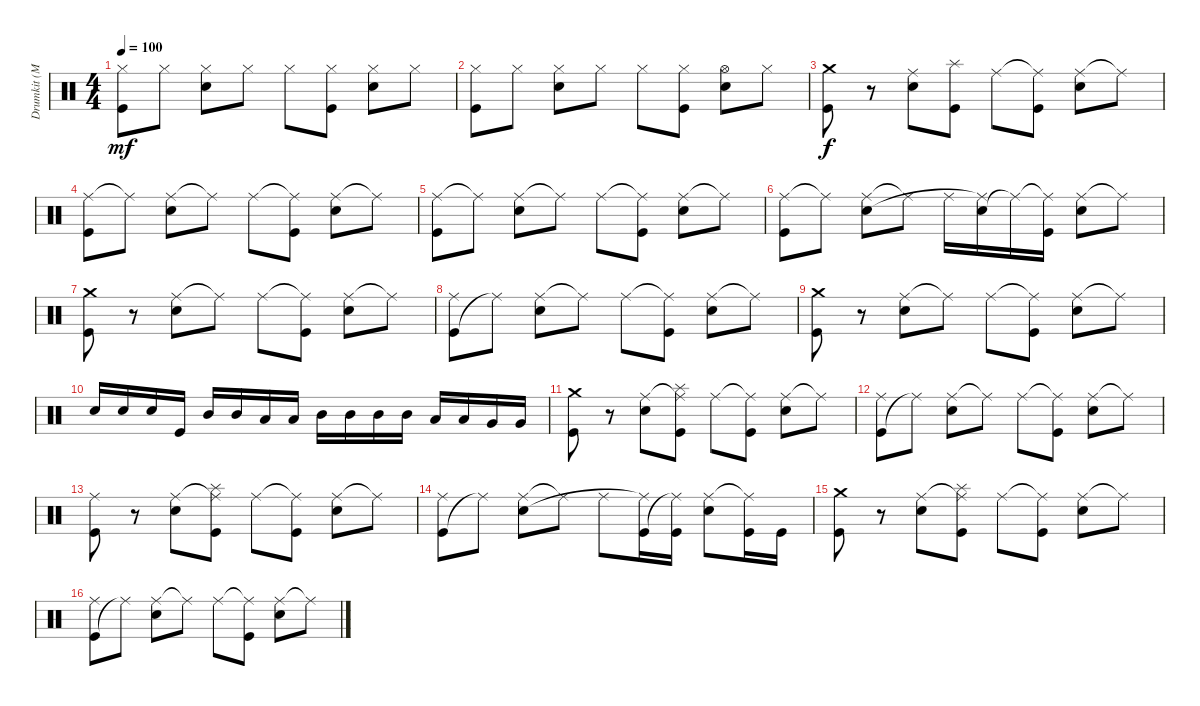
\track ("Drumkit (McBrain)" "Drumkit (M") {instrument percussion}
\staff {score}
\articulation defaults
\ts (4 4)
\tempo 100
\clef neutral
\ks c
("Hi-Hat (closed)" "Kick (hit)").8{dy mf} "Hi-Hat (closed)".8 ("Hi-Hat (closed)" "Snare (hit) 2").8 "Hi-Hat (closed)".8 "Hi-Hat (closed)".8 ("Hi-Hat (closed)" "Kick (hit)").8 ("Hi-Hat (closed)" "Snare (hit) 2").8 "Hi-Hat (closed)".8 |
("Hi-Hat (closed)" "Kick (hit)").8 "Hi-Hat (closed)".8 ("Hi-Hat (closed)" "Snare (hit) 2").8 "Hi-Hat (closed)".8 "Hi-Hat (closed)".8 ("Hi-Hat (closed)" "Kick (hit)").8 ("Hi-Hat (open)" "Snare (hit) 2").8 "Hi-Hat (closed)".8 |
("Kick (hit)" "Crash medium (hit)").8{dy f} r.8 ("Ride (middle)" "Snare (hit) 2").8 ("Kick (hit)" "Splash (hit)").8 "Ride (middle)".8 ("Ride (middle)"{t} "Kick (hit)").8 ("Ride (middle)" "Snare (hit) 2").8 "Ride (middle)"{t}.8 |
("Ride (middle)" "Kick (hit)").8 "Ride (middle)"{t}.8 ("Ride (middle)" "Snare (hit) 2").8 "Ride (middle)"{t}.8 "Ride (middle)".8 ("Ride (middle)"{t} "Kick (hit)").8 ("Ride (middle)" "Snare (hit) 2").8 "Ride (middle)"{t}.8 |
("Ride (middle)" "Kick (hit)").8 "Ride (middle)"{t}.8 ("Ride (middle)" "Snare (hit) 2").8 "Ride (middle)"{t}.8 "Ride (middle)".8 ("Ride (middle)"{t} "Kick (hit)").8 ("Ride (middle)" "Snare (hit) 2").8 "Ride (middle)"{t}.8 |
("Ride (middle)" "Kick (hit)").8 "Ride (middle)"{t}.8 ("Ride (middle)" "Snare (hit) 2").8 "Ride (middle)"{t}.8 "Ride (middle)".16 ("Snare (hit) 2" "Ride (middle)"{t}).16 "Ride (middle)"{t}.16 ("Ride (middle)"{t} "Kick (hit)").16 ("Ride (middle)" "Snare (hit) 2").8 "Ride (middle)"{t}.8 |
("Kick (hit)" "Crash medium (hit)").8 r.8 ("Ride (middle)" "Snare (hit) 2").8 "Ride (middle)"{t}.8 "Ride (middle)".8 ("Ride (middle)"{t} "Kick (hit)").8 ("Ride (middle)" "Snare (hit) 2").8 "Ride (middle)"{t}.8 |
("Kick (hit)" "Ride (middle)").8 "Ride (middle)"{t}.8 ("Ride (middle)" "Snare (hit) 2").8 "Ride (middle)"{t}.8 "Ride (middle)".8 ("Ride (middle)"{t} "Kick (hit)").8 ("Ride (middle)" "Snare (hit) 2").8 "Ride (middle)"{t}.8 |
("Kick (hit)" "Crash medium (hit)").8 r.8 ("Ride (middle)" "Snare (hit) 2").8 "Ride (middle)"{t}.8 "Ride (middle)".8 ("Ride (middle)"{t} "Kick (hit)").8 ("Ride (middle)" "Snare (hit) 2").8 "Ride (middle)"{t}.8 |
"Snare (hit) 2".16 "Snare (hit) 2".16 "Snare (hit) 2".16 "Kick (hit)".16 "Mid Tom (hit)".16 "Mid Tom (hit)".16 "Low Tom (hit)".16 "Low Tom (hit)".16 "Mid Tom (hit)".16 "Mid Tom (hit)".16 "Mid Tom (hit)".16 "Mid Tom (hit)".16 "Low Tom (hit)".16 "Low Tom (hit)".16 "Very Low Tom (hit)".16 "Very Low Tom (hit)".16 |
("Kick (hit)" "Crash medium (hit)").8 r.8 ("Ride (middle)" "Snare (hit) 2").8 ("Ride (middle)"{t} "Kick (hit)" "Splash (hit)").8 "Ride (middle)".8 ("Ride (middle)"{t} "Kick (hit)").8 ("Ride (middle)" "Snare (hit) 2").8 "Ride (middle)"{t}.8 |
("Kick (hit)" "Ride (middle)").8 "Ride (middle)"{t}.8 ("Ride (middle)" "Snare (hit) 2").8 "Ride (middle)"{t}.8 "Ride (middle)".8 ("Ride (middle)"{t} "Kick (hit)").8 ("Ride (middle)" "Snare (hit) 2").8 "Ride (middle)"{t}.8 |
("Kick (hit)" "Ride (middle)").8 r.8 ("Ride (middle)" "Snare (hit) 2").8 ("Ride (middle)"{t} "Kick (hit)" "Splash (hit)").8 "Ride (middle)".8 ("Ride (middle)"{t} "Kick (hit)").8 ("Ride (middle)" "Snare (hit) 2").8 "Ride (middle)"{t}.8 |
("Kick (hit)" "Ride (middle)").8 "Ride (middle)"{t}.8 ("Ride (middle)" "Snare (hit) 2").8 "Ride (middle)"{t}.8 "Ride (middle)".8 ("Kick (hit)" "Ride (middle)"{t}).16 ("Ride (middle)"{t} "Kick (hit)").16 ("Ride (middle)" "Snare (hit) 2").8 ("Ride (middle)"{t} "Kick (hit)").16 "Kick (hit)".16 |
("Kick (hit)" "Crash medium (hit)").8 r.8 ("Ride (middle)" "Snare (hit) 2").8 ("Ride (middle)"{t} "Kick (hit)" "Splash (hit)").8 "Ride (middle)".8 ("Ride (middle)"{t} "Kick (hit)").8 ("Ride (middle)" "Snare (hit) 2").8 "Ride (middle)"{t}.8 |
("Kick (hit)" "Ride (middle)").8 "Ride (middle)"{t}.8 ("Ride (middle)" "Snare (hit) 2").8 "Ride (middle)"{t}.8 "Ride (middle)".8 ("Ride (middle)"{t} "Kick (hit)").8 ("Ride (middle)" "Snare (hit) 2").8 "Ride (middle)"{t}.8
